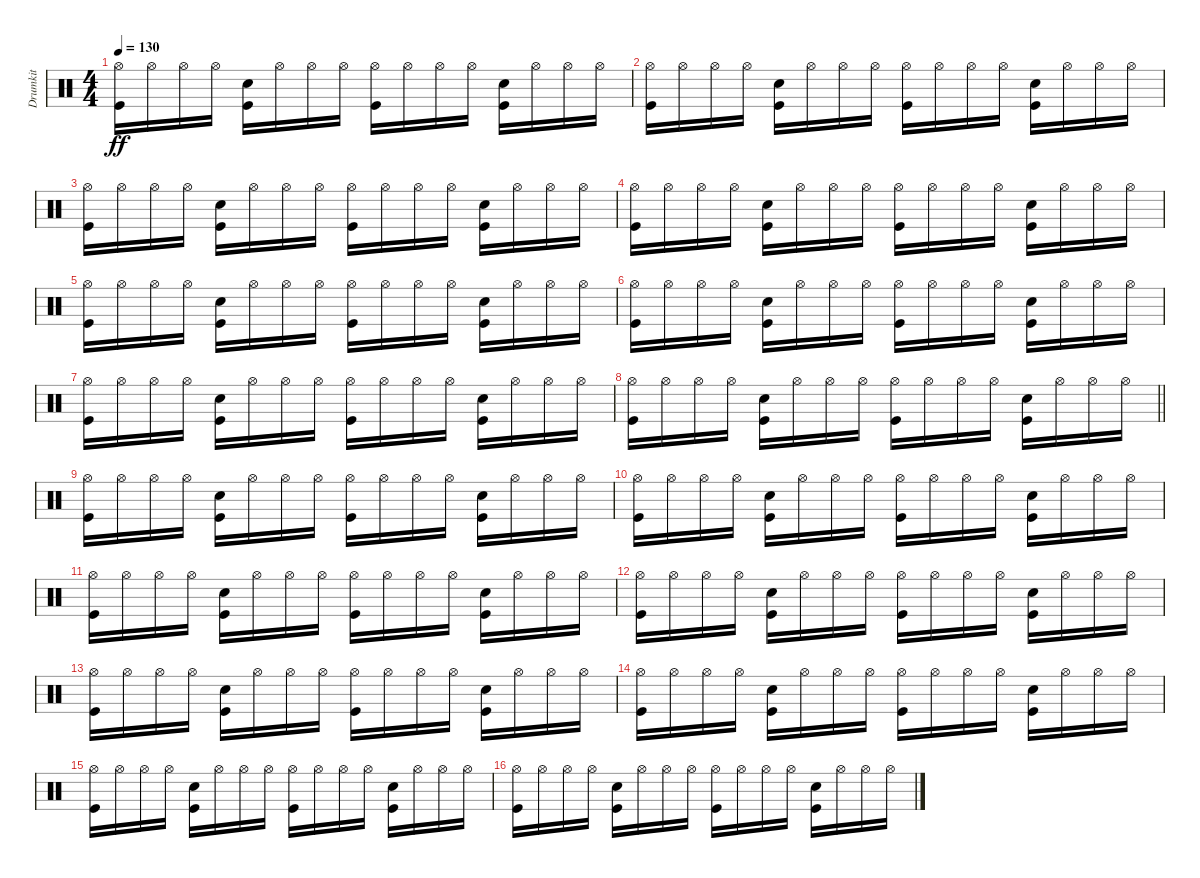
\track ("Drumkit" "Drumkit") {instrument percussion}
\staff {score}
\articulation defaults
\ts (4 4)
\tempo 130
\clef neutral
\ks c
("Hi-Hat (open)" "Kick (hit)").16{dy ff} "Hi-Hat (open)".16 "Hi-Hat (open)".16 "Hi-Hat (open)".16 ("Snare (hit) 2" "Kick (hit)").16 "Hi-Hat (open)".16 "Hi-Hat (open)".16 "Hi-Hat (open)".16 ("Hi-Hat (open)" "Kick (hit)").16 "Hi-Hat (open)".16 "Hi-Hat (open)".16 "Hi-Hat (open)".16 ("Snare (hit) 2" "Kick (hit)").16 "Hi-Hat (open)".16 "Hi-Hat (open)".16 "Hi-Hat (open)".16 |
("Hi-Hat (open)" "Kick (hit)").16 "Hi-Hat (open)".16 "Hi-Hat (open)".16 "Hi-Hat (open)".16 ("Snare (hit) 2" "Kick (hit)").16 "Hi-Hat (open)".16 "Hi-Hat (open)".16 "Hi-Hat (open)".16 ("Hi-Hat (open)" "Kick (hit)").16 "Hi-Hat (open)".16 "Hi-Hat (open)".16 "Hi-Hat (open)".16 ("Snare (hit) 2" "Kick (hit)").16 "Hi-Hat (open)".16 "Hi-Hat (open)".16 "Hi-Hat (open)".16 |
("Hi-Hat (open)" "Kick (hit)").16 "Hi-Hat (open)".16 "Hi-Hat (open)".16 "Hi-Hat (open)".16 ("Snare (hit) 2" "Kick (hit)").16 "Hi-Hat (open)".16 "Hi-Hat (open)".16 "Hi-Hat (open)".16 ("Hi-Hat (open)" "Kick (hit)").16 "Hi-Hat (open)".16 "Hi-Hat (open)".16 "Hi-Hat (open)".16 ("Snare (hit) 2" "Kick (hit)").16 "Hi-Hat (open)".16 "Hi-Hat (open)".16 "Hi-Hat (open)".16 |
("Hi-Hat (open)" "Kick (hit)").16 "Hi-Hat (open)".16 "Hi-Hat (open)".16 "Hi-Hat (open)".16 ("Snare (hit) 2" "Kick (hit)").16 "Hi-Hat (open)".16 "Hi-Hat (open)".16 "Hi-Hat (open)".16 ("Hi-Hat (open)" "Kick (hit)").16 "Hi-Hat (open)".16 "Hi-Hat (open)".16 "Hi-Hat (open)".16 ("Snare (hit) 2" "Kick (hit)").16 "Hi-Hat (open)".16 "Hi-Hat (open)".16 "Hi-Hat (open)".16 |
("Hi-Hat (open)" "Kick (hit)").16 "Hi-Hat (open)".16 "Hi-Hat (open)".16 "Hi-Hat (open)".16 ("Snare (hit) 2" "Kick (hit)").16 "Hi-Hat (open)".16 "Hi-Hat (open)".16 "Hi-Hat (open)".16 ("Hi-Hat (open)" "Kick (hit)").16 "Hi-Hat (open)".16 "Hi-Hat (open)".16 "Hi-Hat (open)".16 ("Snare (hit) 2" "Kick (hit)").16 "Hi-Hat (open)".16 "Hi-Hat (open)".16 "Hi-Hat (open)".16 |
("Hi-Hat (open)" "Kick (hit)").16 "Hi-Hat (open)".16 "Hi-Hat (open)".16 "Hi-Hat (open)".16 ("Snare (hit) 2" "Kick (hit)").16 "Hi-Hat (open)".16 "Hi-Hat (open)".16 "Hi-Hat (open)".16 ("Hi-Hat (open)" "Kick (hit)").16 "Hi-Hat (open)".16 "Hi-Hat (open)".16 "Hi-Hat (open)".16 ("Snare (hit) 2" "Kick (hit)").16 "Hi-Hat (open)".16 "Hi-Hat (open)".16 "Hi-Hat (open)".16 |
("Hi-Hat (open)" "Kick (hit)").16 "Hi-Hat (open)".16 "Hi-Hat (open)".16 "Hi-Hat (open)".16 ("Snare (hit) 2" "Kick (hit)").16 "Hi-Hat (open)".16 "Hi-Hat (open)".16 "Hi-Hat (open)".16 ("Hi-Hat (open)" "Kick (hit)").16 "Hi-Hat (open)".16 "Hi-Hat (open)".16 "Hi-Hat (open)".16 ("Snare (hit) 2" "Kick (hit)").16 "Hi-Hat (open)".16 "Hi-Hat (open)".16 "Hi-Hat (open)".16 |
\barLineRight lightlight
("Hi-Hat (open)" "Kick (hit)").16 "Hi-Hat (open)".16 "Hi-Hat (open)".16 "Hi-Hat (open)".16 ("Snare (hit) 2" "Kick (hit)").16 "Hi-Hat (open)".16 "Hi-Hat (open)".16 "Hi-Hat (open)".16 ("Hi-Hat (open)" "Kick (hit)").16 "Hi-Hat (open)".16 "Hi-Hat (open)".16 "Hi-Hat (open)".16 ("Snare (hit) 2" "Kick (hit)").16 "Hi-Hat (open)".16 "Hi-Hat (open)".16 "Hi-Hat (open)".16 |
("Hi-Hat (open)" "Kick (hit)").16 "Hi-Hat (open)".16 "Hi-Hat (open)".16 "Hi-Hat (open)".16 ("Snare (hit) 2" "Kick (hit)").16 "Hi-Hat (open)".16 "Hi-Hat (open)".16 "Hi-Hat (open)".16 ("Hi-Hat (open)" "Kick (hit)").16 "Hi-Hat (open)".16 "Hi-Hat (open)".16 "Hi-Hat (open)".16 ("Snare (hit) 2" "Kick (hit)").16 "Hi-Hat (open)".16 "Hi-Hat (open)".16 "Hi-Hat (open)".16 |
("Hi-Hat (open)" "Kick (hit)").16 "Hi-Hat (open)".16 "Hi-Hat (open)".16 "Hi-Hat (open)".16 ("Snare (hit) 2" "Kick (hit)").16 "Hi-Hat (open)".16 "Hi-Hat (open)".16 "Hi-Hat (open)".16 ("Hi-Hat (open)" "Kick (hit)").16 "Hi-Hat (open)".16 "Hi-Hat (open)".16 "Hi-Hat (open)".16 ("Snare (hit) 2" "Kick (hit)").16 "Hi-Hat (open)".16 "Hi-Hat (open)".16 "Hi-Hat (open)".16 |
("Hi-Hat (open)" "Kick (hit)").16 "Hi-Hat (open)".16 "Hi-Hat (open)".16 "Hi-Hat (open)".16 ("Snare (hit) 2" "Kick (hit)").16 "Hi-Hat (open)".16 "Hi-Hat (open)".16 "Hi-Hat (open)".16 ("Hi-Hat (open)" "Kick (hit)").16 "Hi-Hat (open)".16 "Hi-Hat (open)".16 "Hi-Hat (open)".16 ("Snare (hit) 2" "Kick (hit)").16 "Hi-Hat (open)".16 "Hi-Hat (open)".16 "Hi-Hat (open)".16 |
("Hi-Hat (open)" "Kick (hit)").16 "Hi-Hat (open)".16 "Hi-Hat (open)".16 "Hi-Hat (open)".16 ("Snare (hit) 2" "Kick (hit)").16 "Hi-Hat (open)".16 "Hi-Hat (open)".16 "Hi-Hat (open)".16 ("Hi-Hat (open)" "Kick (hit)").16 "Hi-Hat (open)".16 "Hi-Hat (open)".16 "Hi-Hat (open)".16 ("Snare (hit) 2" "Kick (hit)").16 "Hi-Hat (open)".16 "Hi-Hat (open)".16 "Hi-Hat (open)".16 |
("Hi-Hat (open)" "Kick (hit)").16 "Hi-Hat (open)".16 "Hi-Hat (open)".16 "Hi-Hat (open)".16 ("Snare (hit) 2" "Kick (hit)").16 "Hi-Hat (open)".16 "Hi-Hat (open)".16 "Hi-Hat (open)".16 ("Hi-Hat (open)" "Kick (hit)").16 "Hi-Hat (open)".16 "Hi-Hat (open)".16 "Hi-Hat (open)".16 ("Snare (hit) 2" "Kick (hit)").16 "Hi-Hat (open)".16 "Hi-Hat (open)".16 "Hi-Hat (open)".16 |
("Hi-Hat (open)" "Kick (hit)").16 "Hi-Hat (open)".16 "Hi-Hat (open)".16 "Hi-Hat (open)".16 ("Snare (hit) 2" "Kick (hit)").16 "Hi-Hat (open)".16 "Hi-Hat (open)".16 "Hi-Hat (open)".16 ("Hi-Hat (open)" "Kick (hit)").16 "Hi-Hat (open)".16 "Hi-Hat (open)".16 "Hi-Hat (open)".16 ("Snare (hit) 2" "Kick (hit)").16 "Hi-Hat (open)".16 "Hi-Hat (open)".16 "Hi-Hat (open)".16 |
("Hi-Hat (open)" "Kick (hit)").16 "Hi-Hat (open)".16 "Hi-Hat (open)".16 "Hi-Hat (open)".16 ("Snare (hit) 2" "Kick (hit)").16 "Hi-Hat (open)".16 "Hi-Hat (open)".16 "Hi-Hat (open)".16 ("Hi-Hat (open)" "Kick (hit)").16 "Hi-Hat (open)".16 "Hi-Hat (open)".16 "Hi-Hat (open)".16 ("Snare (hit) 2" "Kick (hit)").16 "Hi-Hat (open)".16 "Hi-Hat (open)".16 "Hi-Hat (open)".16 |
("Hi-Hat (open)" "Kick (hit)").16 "Hi-Hat (open)".16 "Hi-Hat (open)".16 "Hi-Hat (open)".16 ("Snare (hit) 2" "Kick (hit)").16 "Hi-Hat (open)".16 "Hi-Hat (open)".16 "Hi-Hat (open)".16 ("Hi-Hat (open)" "Kick (hit)").16 "Hi-Hat (open)".16 "Hi-Hat (open)".16 "Hi-Hat (open)".16 ("Snare (hit) 2" "Kick (hit)").16 "Hi-Hat (open)".16 "Hi-Hat (open)".16 "Hi-Hat (open)".16
